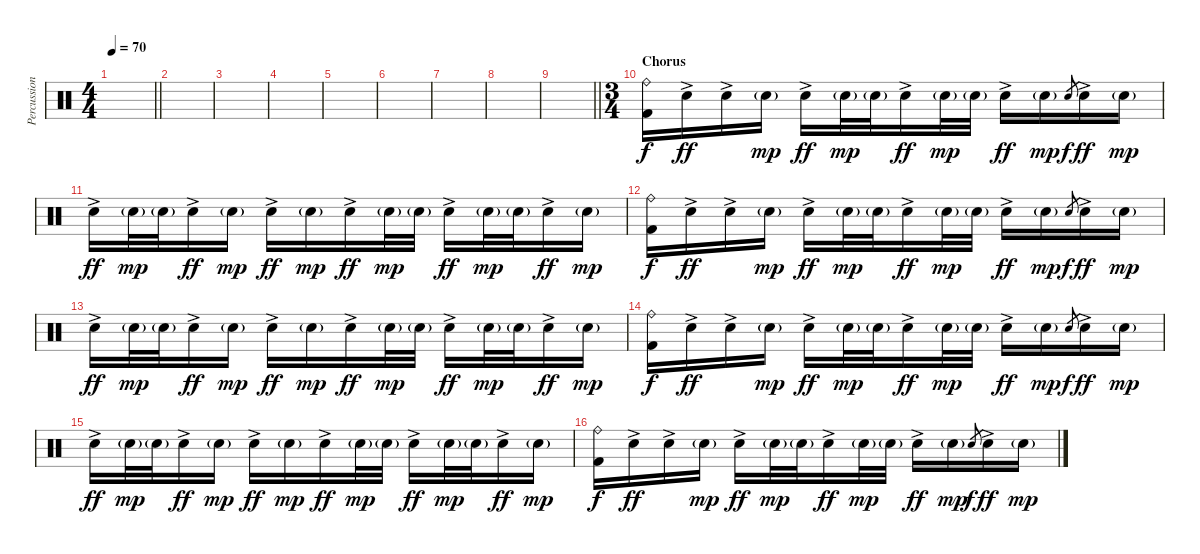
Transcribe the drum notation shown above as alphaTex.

\track ("Percussion" "Percussion") {instrument percussion}
\staff {score}
\articulation defaults
\ts (4 4)
\tempo 70
\clef neutral
\barLineRight lightlight
\ks c
|
|
|
|
|
|
|
|
\barLineRight lightlight
|
\ts (3 4)
\section ("" "Chorus")
("Ride (bell)" "Kick (hit) 2").16 "Electric Snare (hit)"{ac}.16{dy ff} "Electric Snare (hit)"{ac}.16 "Electric Snare (hit)"{g}.16{dy mp} "Electric Snare (hit)"{ac}.16{dy ff} "Electric Snare (hit)"{g}.32{dy mp} "Electric Snare (hit)"{g}.32 "Electric Snare (hit)"{ac}.16{dy ff} "Electric Snare (hit)"{g}.32{dy mp} "Electric Snare (hit)"{g}.32 "Electric Snare (hit)"{ac}.16{dy ff} "Electric Snare (hit)"{g}.16{dy mp} "Electric Snare (hit)".8{gr dy f} "Electric Snare (hit)"{ac}.16{dy ff} "Electric Snare (hit)"{g}.16{dy mp} |
"Electric Snare (hit)"{ac}.16{dy ff} "Electric Snare (hit)"{g}.32{dy mp} "Electric Snare (hit)"{g}.32 "Electric Snare (hit)"{ac}.16{dy ff} "Electric Snare (hit)"{g}.16{dy mp} "Electric Snare (hit)"{ac}.16{dy ff} "Electric Snare (hit)"{g}.16{dy mp} "Electric Snare (hit)"{ac}.16{dy ff} "Electric Snare (hit)"{g}.32{dy mp} "Electric Snare (hit)"{g}.32 "Electric Snare (hit)"{ac}.16{dy ff} "Electric Snare (hit)"{g}.32{dy mp} "Electric Snare (hit)"{g}.32 "Electric Snare (hit)"{ac}.16{dy ff} "Electric Snare (hit)"{g}.16{dy mp} |
("Ride (bell)" "Kick (hit) 2").16{dy f} "Electric Snare (hit)"{ac}.16{dy ff} "Electric Snare (hit)"{ac}.16 "Electric Snare (hit)"{g}.16{dy mp} "Electric Snare (hit)"{ac}.16{dy ff} "Electric Snare (hit)"{g}.32{dy mp} "Electric Snare (hit)"{g}.32 "Electric Snare (hit)"{ac}.16{dy ff} "Electric Snare (hit)"{g}.32{dy mp} "Electric Snare (hit)"{g}.32 "Electric Snare (hit)"{ac}.16{dy ff} "Electric Snare (hit)"{g}.16{dy mp} "Electric Snare (hit)".8{gr dy f} "Electric Snare (hit)"{ac}.16{dy ff} "Electric Snare (hit)"{g}.16{dy mp} |
"Electric Snare (hit)"{ac}.16{dy ff} "Electric Snare (hit)"{g}.32{dy mp} "Electric Snare (hit)"{g}.32 "Electric Snare (hit)"{ac}.16{dy ff} "Electric Snare (hit)"{g}.16{dy mp} "Electric Snare (hit)"{ac}.16{dy ff} "Electric Snare (hit)"{g}.16{dy mp} "Electric Snare (hit)"{ac}.16{dy ff} "Electric Snare (hit)"{g}.32{dy mp} "Electric Snare (hit)"{g}.32 "Electric Snare (hit)"{ac}.16{dy ff} "Electric Snare (hit)"{g}.32{dy mp} "Electric Snare (hit)"{g}.32 "Electric Snare (hit)"{ac}.16{dy ff} "Electric Snare (hit)"{g}.16{dy mp} |
("Ride (bell)" "Kick (hit) 2").16{dy f} "Electric Snare (hit)"{ac}.16{dy ff} "Electric Snare (hit)"{ac}.16 "Electric Snare (hit)"{g}.16{dy mp} "Electric Snare (hit)"{ac}.16{dy ff} "Electric Snare (hit)"{g}.32{dy mp} "Electric Snare (hit)"{g}.32 "Electric Snare (hit)"{ac}.16{dy ff} "Electric Snare (hit)"{g}.32{dy mp} "Electric Snare (hit)"{g}.32 "Electric Snare (hit)"{ac}.16{dy ff} "Electric Snare (hit)"{g}.16{dy mp} "Electric Snare (hit)".8{gr dy f} "Electric Snare (hit)"{ac}.16{dy ff} "Electric Snare (hit)"{g}.16{dy mp} |
"Electric Snare (hit)"{ac}.16{dy ff} "Electric Snare (hit)"{g}.32{dy mp} "Electric Snare (hit)"{g}.32 "Electric Snare (hit)"{ac}.16{dy ff} "Electric Snare (hit)"{g}.16{dy mp} "Electric Snare (hit)"{ac}.16{dy ff} "Electric Snare (hit)"{g}.16{dy mp} "Electric Snare (hit)"{ac}.16{dy ff} "Electric Snare (hit)"{g}.32{dy mp} "Electric Snare (hit)"{g}.32 "Electric Snare (hit)"{ac}.16{dy ff} "Electric Snare (hit)"{g}.32{dy mp} "Electric Snare (hit)"{g}.32 "Electric Snare (hit)"{ac}.16{dy ff} "Electric Snare (hit)"{g}.16{dy mp} |
("Ride (bell)" "Kick (hit) 2").16{dy f} "Electric Snare (hit)"{ac}.16{dy ff} "Electric Snare (hit)"{ac}.16 "Electric Snare (hit)"{g}.16{dy mp} "Electric Snare (hit)"{ac}.16{dy ff} "Electric Snare (hit)"{g}.32{dy mp} "Electric Snare (hit)"{g}.32 "Electric Snare (hit)"{ac}.16{dy ff} "Electric Snare (hit)"{g}.32{dy mp} "Electric Snare (hit)"{g}.32 "Electric Snare (hit)"{ac}.16{dy ff} "Electric Snare (hit)"{g}.16{dy mp} "Electric Snare (hit)".8{gr dy f} "Electric Snare (hit)"{ac}.16{dy ff} "Electric Snare (hit)"{g}.16{dy mp}
